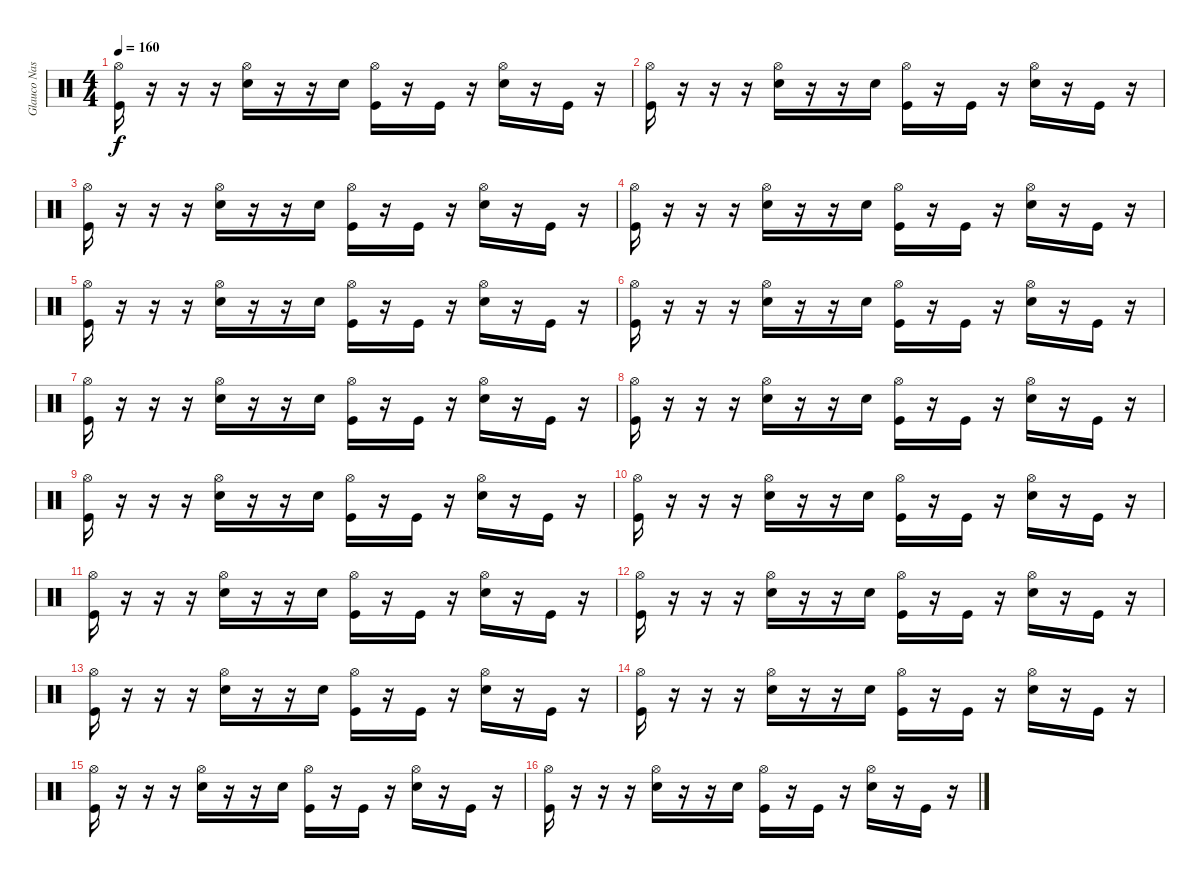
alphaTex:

\track ("Glauco Nastácia" "Glauco Nas") {instrument percussion}
\staff {score}
\articulation defaults
\ts (4 4)
\tempo 160
\clef neutral
\ks c
("Hi-Hat (open)" "Kick (hit)").16{dy f} r.16 r.16 r.16 ("Hi-Hat (open)" "Electric Snare (hit)").16 r.16 r.16 "Electric Snare (hit)".16 ("Hi-Hat (open)" "Kick (hit)").16 r.16 "Kick (hit)".16 r.16 ("Hi-Hat (open)" "Electric Snare (hit)").16 r.16 "Kick (hit)".16 r.16 |
("Hi-Hat (open)" "Kick (hit)").16 r.16 r.16 r.16 ("Hi-Hat (open)" "Electric Snare (hit)").16 r.16 r.16 "Electric Snare (hit)".16 ("Hi-Hat (open)" "Kick (hit)").16 r.16 "Kick (hit)".16 r.16 ("Hi-Hat (open)" "Electric Snare (hit)").16 r.16 "Kick (hit)".16 r.16 |
("Hi-Hat (open)" "Kick (hit)").16 r.16 r.16 r.16 ("Hi-Hat (open)" "Electric Snare (hit)").16 r.16 r.16 "Electric Snare (hit)".16 ("Hi-Hat (open)" "Kick (hit)").16 r.16 "Kick (hit)".16 r.16 ("Hi-Hat (open)" "Electric Snare (hit)").16 r.16 "Kick (hit)".16 r.16 |
("Hi-Hat (open)" "Kick (hit)").16 r.16 r.16 r.16 ("Hi-Hat (open)" "Electric Snare (hit)").16 r.16 r.16 "Electric Snare (hit)".16 ("Hi-Hat (open)" "Kick (hit)").16 r.16 "Kick (hit)".16 r.16 ("Hi-Hat (open)" "Electric Snare (hit)").16 r.16 "Kick (hit)".16 r.16 |
("Hi-Hat (open)" "Kick (hit)").16 r.16 r.16 r.16 ("Hi-Hat (open)" "Electric Snare (hit)").16 r.16 r.16 "Electric Snare (hit)".16 ("Hi-Hat (open)" "Kick (hit)").16 r.16 "Kick (hit)".16 r.16 ("Hi-Hat (open)" "Electric Snare (hit)").16 r.16 "Kick (hit)".16 r.16 |
("Hi-Hat (open)" "Kick (hit)").16 r.16 r.16 r.16 ("Hi-Hat (open)" "Electric Snare (hit)").16 r.16 r.16 "Electric Snare (hit)".16 ("Hi-Hat (open)" "Kick (hit)").16 r.16 "Kick (hit)".16 r.16 ("Hi-Hat (open)" "Electric Snare (hit)").16 r.16 "Kick (hit)".16 r.16 |
("Hi-Hat (open)" "Kick (hit)").16 r.16 r.16 r.16 ("Hi-Hat (open)" "Electric Snare (hit)").16 r.16 r.16 "Electric Snare (hit)".16 ("Hi-Hat (open)" "Kick (hit)").16 r.16 "Kick (hit)".16 r.16 ("Hi-Hat (open)" "Electric Snare (hit)").16 r.16 "Kick (hit)".16 r.16 |
("Hi-Hat (open)" "Kick (hit)").16 r.16 r.16 r.16 ("Hi-Hat (open)" "Electric Snare (hit)").16 r.16 r.16 "Electric Snare (hit)".16 ("Hi-Hat (open)" "Kick (hit)").16 r.16 "Kick (hit)".16 r.16 ("Hi-Hat (open)" "Electric Snare (hit)").16 r.16 "Kick (hit)".16 r.16 |
("Hi-Hat (open)" "Kick (hit)").16 r.16 r.16 r.16 ("Hi-Hat (open)" "Electric Snare (hit)").16 r.16 r.16 "Electric Snare (hit)".16 ("Hi-Hat (open)" "Kick (hit)").16 r.16 "Kick (hit)".16 r.16 ("Hi-Hat (open)" "Electric Snare (hit)").16 r.16 "Kick (hit)".16 r.16 |
("Hi-Hat (open)" "Kick (hit)").16 r.16 r.16 r.16 ("Hi-Hat (open)" "Electric Snare (hit)").16 r.16 r.16 "Electric Snare (hit)".16 ("Hi-Hat (open)" "Kick (hit)").16 r.16 "Kick (hit)".16 r.16 ("Hi-Hat (open)" "Electric Snare (hit)").16 r.16 "Kick (hit)".16 r.16 |
("Hi-Hat (open)" "Kick (hit)").16 r.16 r.16 r.16 ("Hi-Hat (open)" "Electric Snare (hit)").16 r.16 r.16 "Electric Snare (hit)".16 ("Hi-Hat (open)" "Kick (hit)").16 r.16 "Kick (hit)".16 r.16 ("Hi-Hat (open)" "Electric Snare (hit)").16 r.16 "Kick (hit)".16 r.16 |
("Hi-Hat (open)" "Kick (hit)").16 r.16 r.16 r.16 ("Hi-Hat (open)" "Electric Snare (hit)").16 r.16 r.16 "Electric Snare (hit)".16 ("Hi-Hat (open)" "Kick (hit)").16 r.16 "Kick (hit)".16 r.16 ("Hi-Hat (open)" "Electric Snare (hit)").16 r.16 "Kick (hit)".16 r.16 |
("Hi-Hat (open)" "Kick (hit)").16 r.16 r.16 r.16 ("Hi-Hat (open)" "Electric Snare (hit)").16 r.16 r.16 "Electric Snare (hit)".16 ("Hi-Hat (open)" "Kick (hit)").16 r.16 "Kick (hit)".16 r.16 ("Hi-Hat (open)" "Electric Snare (hit)").16 r.16 "Kick (hit)".16 r.16 |
("Hi-Hat (open)" "Kick (hit)").16 r.16 r.16 r.16 ("Hi-Hat (open)" "Electric Snare (hit)").16 r.16 r.16 "Electric Snare (hit)".16 ("Hi-Hat (open)" "Kick (hit)").16 r.16 "Kick (hit)".16 r.16 ("Hi-Hat (open)" "Electric Snare (hit)").16 r.16 "Kick (hit)".16 r.16 |
("Hi-Hat (open)" "Kick (hit)").16 r.16 r.16 r.16 ("Hi-Hat (open)" "Electric Snare (hit)").16 r.16 r.16 "Electric Snare (hit)".16 ("Hi-Hat (open)" "Kick (hit)").16 r.16 "Kick (hit)".16 r.16 ("Hi-Hat (open)" "Electric Snare (hit)").16 r.16 "Kick (hit)".16 r.16 |
("Hi-Hat (open)" "Kick (hit)").16 r.16 r.16 r.16 ("Hi-Hat (open)" "Electric Snare (hit)").16 r.16 r.16 "Electric Snare (hit)".16 ("Hi-Hat (open)" "Kick (hit)").16 r.16 "Kick (hit)".16 r.16 ("Hi-Hat (open)" "Electric Snare (hit)").16 r.16 "Kick (hit)".16 r.16
